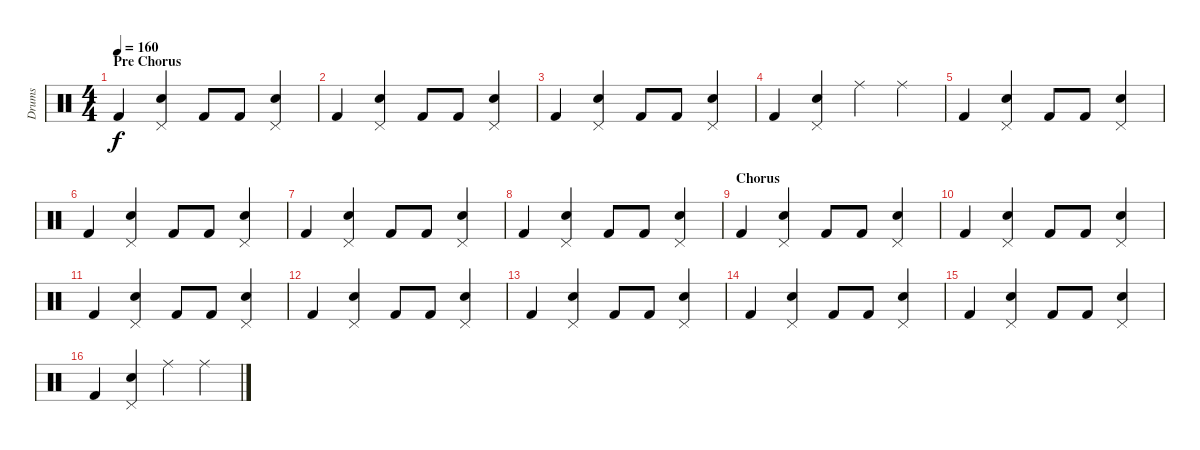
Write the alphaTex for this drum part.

\track ("Drums" "Drums") {instrument percussion}
\staff {score}
\articulation defaults
\ts (4 4)
\section ("" "Pre Chorus ")
\tempo 160
\clef neutral
\ks c "Kick (hit) 2".4{dy f}
("Pedal Hi-Hat (hit)" "Electric Snare (hit)").4 "Kick (hit) 2".8 "Kick (hit) 2".8 ("Pedal Hi-Hat (hit)" "Electric Snare (hit)").4 |
"Kick (hit) 2".4 ("Pedal Hi-Hat (hit)" "Electric Snare (hit)").4 "Kick (hit) 2".8 "Kick (hit) 2".8 ("Pedal Hi-Hat (hit)" "Electric Snare (hit)").4 |
"Kick (hit) 2".4 ("Pedal Hi-Hat (hit)" "Electric Snare (hit)").4 "Kick (hit) 2".8 "Kick (hit) 2".8 ("Pedal Hi-Hat (hit)" "Electric Snare (hit)").4 |
"Kick (hit) 2".4 ("Pedal Hi-Hat (hit)" "Electric Snare (hit)").4 "Ride (middle)".4 "Ride (middle)".4 |
"Kick (hit) 2".4 ("Pedal Hi-Hat (hit)" "Electric Snare (hit)").4 "Kick (hit) 2".8 "Kick (hit) 2".8 ("Pedal Hi-Hat (hit)" "Electric Snare (hit)").4 |
"Kick (hit) 2".4 ("Pedal Hi-Hat (hit)" "Electric Snare (hit)").4 "Kick (hit) 2".8 "Kick (hit) 2".8 ("Pedal Hi-Hat (hit)" "Electric Snare (hit)").4 |
"Kick (hit) 2".4 ("Pedal Hi-Hat (hit)" "Electric Snare (hit)").4 "Kick (hit) 2".8 "Kick (hit) 2".8 ("Pedal Hi-Hat (hit)" "Electric Snare (hit)").4 |
"Kick (hit) 2".4 ("Pedal Hi-Hat (hit)" "Electric Snare (hit)").4 "Kick (hit) 2".8 "Kick (hit) 2".8 ("Pedal Hi-Hat (hit)" "Electric Snare (hit)").4 |
\section ("" "Chorus")
"Kick (hit) 2".4 ("Pedal Hi-Hat (hit)" "Electric Snare (hit)").4 "Kick (hit) 2".8 "Kick (hit) 2".8 ("Pedal Hi-Hat (hit)" "Electric Snare (hit)").4 |
"Kick (hit) 2".4 ("Pedal Hi-Hat (hit)" "Electric Snare (hit)").4 "Kick (hit) 2".8 "Kick (hit) 2".8 ("Pedal Hi-Hat (hit)" "Electric Snare (hit)").4 |
"Kick (hit) 2".4 ("Pedal Hi-Hat (hit)" "Electric Snare (hit)").4 "Kick (hit) 2".8 "Kick (hit) 2".8 ("Pedal Hi-Hat (hit)" "Electric Snare (hit)").4 |
"Kick (hit) 2".4 ("Pedal Hi-Hat (hit)" "Electric Snare (hit)").4 "Kick (hit) 2".8 "Kick (hit) 2".8 ("Pedal Hi-Hat (hit)" "Electric Snare (hit)").4 |
"Kick (hit) 2".4 ("Pedal Hi-Hat (hit)" "Electric Snare (hit)").4 "Kick (hit) 2".8 "Kick (hit) 2".8 ("Pedal Hi-Hat (hit)" "Electric Snare (hit)").4 |
"Kick (hit) 2".4 ("Pedal Hi-Hat (hit)" "Electric Snare (hit)").4 "Kick (hit) 2".8 "Kick (hit) 2".8 ("Pedal Hi-Hat (hit)" "Electric Snare (hit)").4 |
"Kick (hit) 2".4 ("Pedal Hi-Hat (hit)" "Electric Snare (hit)").4 "Kick (hit) 2".8 "Kick (hit) 2".8 ("Pedal Hi-Hat (hit)" "Electric Snare (hit)").4 |
"Kick (hit) 2".4 ("Pedal Hi-Hat (hit)" "Electric Snare (hit)").4 "Ride (middle)".4 "Ride (middle)".4
